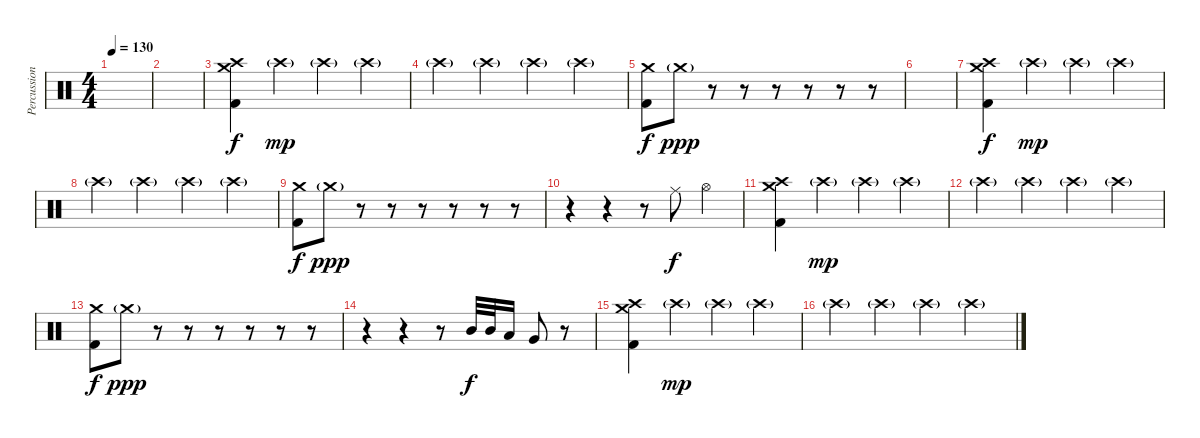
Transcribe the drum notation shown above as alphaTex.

\track ("Percussion" "Percussion") {instrument percussion}
\staff {score}
\articulation defaults
\ts (4 4)
\tempo 130
\clef neutral
\ks c
|
|
("Crash high (hit)" "Crash medium (hit)" "Kick (hit) 2").4 "Crash high (hit)"{g}.4{dy mp} "Crash high (hit)"{g}.4 "Crash high (hit)"{g}.4 |
"Crash high (hit)"{g}.4 "Crash high (hit)"{g}.4 "Crash high (hit)"{g}.4 "Crash high (hit)"{g}.4 |
("Crash medium (hit)" "Kick (hit) 2").8{dy f} "Crash medium (hit)"{g}.8{dy ppp} r.8 r.8 r.8 r.8 r.8 r.8 |
|
("Crash high (hit)" "Crash medium (hit)" "Kick (hit) 2").4{dy f} "Crash high (hit)"{g}.4{dy mp} "Crash high (hit)"{g}.4 "Crash high (hit)"{g}.4 |
"Crash high (hit)"{g}.4 "Crash high (hit)"{g}.4 "Crash high (hit)"{g}.4 "Crash high (hit)"{g}.4 |
("Crash medium (hit)" "Kick (hit) 2").8{dy f} "Crash medium (hit)"{g}.8{dy ppp} r.8 r.8 r.8 r.8 r.8 r.8 |
r.4 r.4 r.8 "Ride (middle)".8{dy f} "Hi-Hat (open)".4 |
("Crash high (hit)" "Crash medium (hit)" "Kick (hit) 2").4 "Crash high (hit)"{g}.4{dy mp} "Crash high (hit)"{g}.4 "Crash high (hit)"{g}.4 |
"Crash high (hit)"{g}.4 "Crash high (hit)"{g}.4 "Crash high (hit)"{g}.4 "Crash high (hit)"{g}.4 |
("Crash medium (hit)" "Kick (hit) 2").8{dy f} "Crash medium (hit)"{g}.8{dy ppp} r.8 r.8 r.8 r.8 r.8 r.8 |
r.4 r.4 r.8 "Mid Tom (hit)".32{dy f} "Mid Tom (hit)".32 "Low Tom (hit)".16 "Very Low Tom (hit)".8 r.8 |
("Crash high (hit)" "Crash medium (hit)" "Kick (hit) 2").4 "Crash high (hit)"{g}.4{dy mp} "Crash high (hit)"{g}.4 "Crash high (hit)"{g}.4 |
"Crash high (hit)"{g}.4 "Crash high (hit)"{g}.4 "Crash high (hit)"{g}.4 "Crash high (hit)"{g}.4
